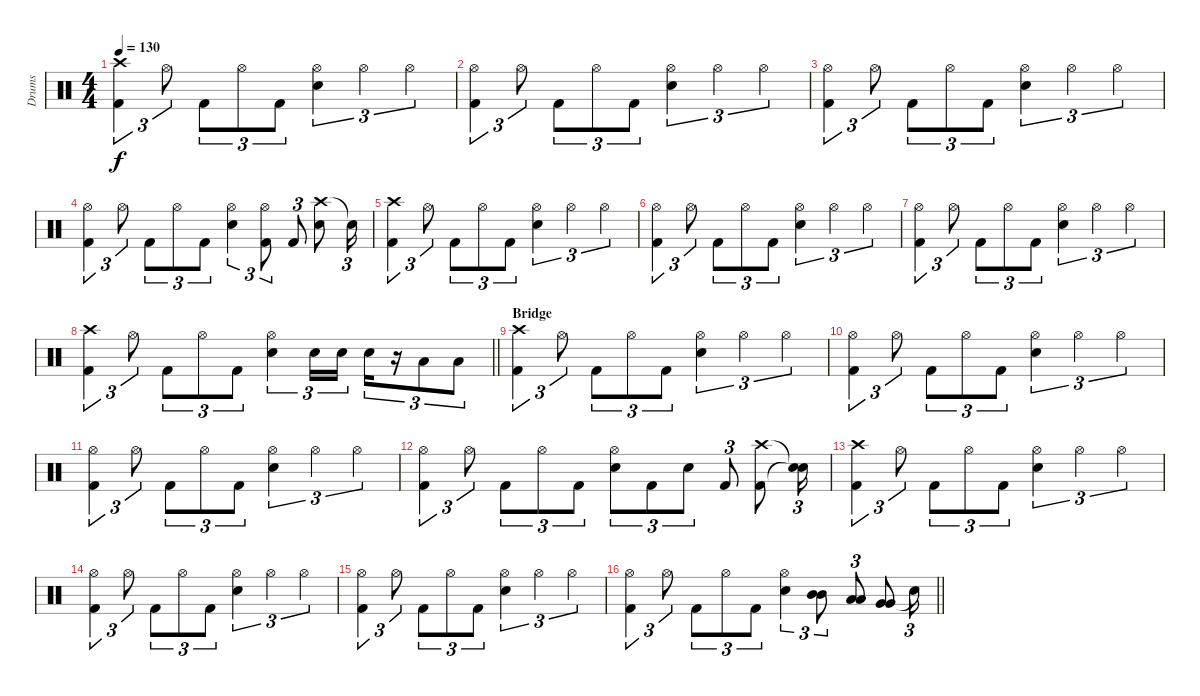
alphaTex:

\track ("Drums" "Drums") {instrument percussion}
\staff {score}
\articulation defaults
\ts (4 4)
\tempo 130
\clef neutral
\ks c
("Crash high (hit)" "Kick (hit) 2").4{tu (3 2) dy f} "Hi-Hat (open)".8{tu (3 2)} "Kick (hit) 2".8{tu (3 2)} "Hi-Hat (open)".8{tu (3 2)} "Kick (hit) 2".8{tu (3 2)} ("Hi-Hat (open)" "Electric Snare (hit)").4{tu (3 2)} "Hi-Hat (open)".4{tu (3 2)} "Hi-Hat (open)".4{tu (3 2)} |
("Hi-Hat (open)" "Kick (hit) 2").4{tu (3 2)} "Hi-Hat (open)".8{tu (3 2)} "Kick (hit) 2".8{tu (3 2)} "Hi-Hat (open)".8{tu (3 2)} "Kick (hit) 2".8{tu (3 2)} ("Hi-Hat (open)" "Electric Snare (hit)").4{tu (3 2)} "Hi-Hat (open)".4{tu (3 2)} "Hi-Hat (open)".4{tu (3 2)} |
("Hi-Hat (open)" "Kick (hit) 2").4{tu (3 2)} "Hi-Hat (open)".8{tu (3 2)} "Kick (hit) 2".8{tu (3 2)} "Hi-Hat (open)".8{tu (3 2)} "Kick (hit) 2".8{tu (3 2)} ("Hi-Hat (open)" "Electric Snare (hit)").4{tu (3 2)} "Hi-Hat (open)".4{tu (3 2)} "Hi-Hat (open)".4{tu (3 2)} |
("Hi-Hat (open)" "Kick (hit) 2").4{tu (3 2)} "Hi-Hat (open)".8{tu (3 2)} "Kick (hit) 2".8{tu (3 2)} "Hi-Hat (open)".8{tu (3 2)} "Kick (hit) 2".8{tu (3 2)} ("Hi-Hat (open)" "Electric Snare (hit)").4{tu (3 2)} ("Hi-Hat (open)" "Kick (hit) 2").8{tu (3 2)} "Kick (hit) 2".8{tu (3 2)} ("Crash high (hit)" "Electric Snare (hit)").8 "Snare (hit)"{t}.16{tu (3 2)} |
("Crash high (hit)" "Kick (hit) 2").4{tu (3 2)} "Hi-Hat (open)".8{tu (3 2)} "Kick (hit) 2".8{tu (3 2)} "Hi-Hat (open)".8{tu (3 2)} "Kick (hit) 2".8{tu (3 2)} ("Hi-Hat (open)" "Electric Snare (hit)").4{tu (3 2)} "Hi-Hat (open)".4{tu (3 2)} "Hi-Hat (open)".4{tu (3 2)} |
("Hi-Hat (open)" "Kick (hit) 2").4{tu (3 2)} "Hi-Hat (open)".8{tu (3 2)} "Kick (hit) 2".8{tu (3 2)} "Hi-Hat (open)".8{tu (3 2)} "Kick (hit) 2".8{tu (3 2)} ("Hi-Hat (open)" "Electric Snare (hit)").4{tu (3 2)} "Hi-Hat (open)".4{tu (3 2)} "Hi-Hat (open)".4{tu (3 2)} |
("Hi-Hat (open)" "Kick (hit) 2").4{tu (3 2)} "Hi-Hat (open)".8{tu (3 2)} "Kick (hit) 2".8{tu (3 2)} "Hi-Hat (open)".8{tu (3 2)} "Kick (hit) 2".8{tu (3 2)} ("Hi-Hat (open)" "Electric Snare (hit)").4{tu (3 2)} "Hi-Hat (open)".4{tu (3 2)} "Hi-Hat (open)".4{tu (3 2)} |
\barLineRight lightlight
("Crash high (hit)" "Kick (hit) 2").4{tu (3 2)} "Hi-Hat (open)".8{tu (3 2)} "Kick (hit) 2".8{tu (3 2)} "Hi-Hat (open)".8{tu (3 2)} "Kick (hit) 2".8{tu (3 2)} ("Hi-Hat (open)" "Electric Snare (hit)").4{tu (3 2)} "Electric Snare (hit)".16{tu (3 2)} "Electric Snare (hit)".16{tu (3 2)} "Electric Snare (hit)".16{tu (3 2)} r.16{tu (3 2)} "Low Tom (hit)".8{tu (3 2)} "Low Tom (hit)".8{tu (3 2)} |
\section ("" "Bridge")
("Crash high (hit)" "Kick (hit) 2").4{tu (3 2)} "Hi-Hat (open)".8{tu (3 2)} "Kick (hit) 2".8{tu (3 2)} "Hi-Hat (open)".8{tu (3 2)} "Kick (hit) 2".8{tu (3 2)} ("Hi-Hat (open)" "Electric Snare (hit)").4{tu (3 2)} "Hi-Hat (open)".4{tu (3 2)} "Hi-Hat (open)".4{tu (3 2)} |
("Hi-Hat (open)" "Kick (hit) 2").4{tu (3 2)} "Hi-Hat (open)".8{tu (3 2)} "Kick (hit) 2".8{tu (3 2)} "Hi-Hat (open)".8{tu (3 2)} "Kick (hit) 2".8{tu (3 2)} ("Hi-Hat (open)" "Electric Snare (hit)").4{tu (3 2)} "Hi-Hat (open)".4{tu (3 2)} "Hi-Hat (open)".4{tu (3 2)} |
("Hi-Hat (open)" "Kick (hit) 2").4{tu (3 2)} "Hi-Hat (open)".8{tu (3 2)} "Kick (hit) 2".8{tu (3 2)} "Hi-Hat (open)".8{tu (3 2)} "Kick (hit) 2".8{tu (3 2)} ("Hi-Hat (open)" "Electric Snare (hit)").4{tu (3 2)} "Hi-Hat (open)".4{tu (3 2)} "Hi-Hat (open)".4{tu (3 2)} |
("Hi-Hat (open)" "Kick (hit) 2").4{tu (3 2)} "Hi-Hat (open)".8{tu (3 2)} "Kick (hit) 2".8{tu (3 2)} "Hi-Hat (open)".8{tu (3 2)} "Kick (hit) 2".8{tu (3 2)} ("Hi-Hat (open)" "Electric Snare (hit)").8{tu (3 2)} "Kick (hit) 2".8{tu (3 2)} "Electric Snare (hit)".8{tu (3 2)} "Kick (hit) 2".8{tu (3 2)} ("Crash high (hit)" "Kick (hit) 2").8 ("Snare (hit)"{t} "Snare (hit)"{t}).16{tu (3 2)} |
("Crash high (hit)" "Kick (hit) 2").4{tu (3 2)} "Hi-Hat (open)".8{tu (3 2)} "Kick (hit) 2".8{tu (3 2)} "Hi-Hat (open)".8{tu (3 2)} "Kick (hit) 2".8{tu (3 2)} ("Hi-Hat (open)" "Electric Snare (hit)").4{tu (3 2)} "Hi-Hat (open)".4{tu (3 2)} "Hi-Hat (open)".4{tu (3 2)} |
("Hi-Hat (open)" "Kick (hit) 2").4{tu (3 2)} "Hi-Hat (open)".8{tu (3 2)} "Kick (hit) 2".8{tu (3 2)} "Hi-Hat (open)".8{tu (3 2)} "Kick (hit) 2".8{tu (3 2)} ("Hi-Hat (open)" "Electric Snare (hit)").4{tu (3 2)} "Hi-Hat (open)".4{tu (3 2)} "Hi-Hat (open)".4{tu (3 2)} |
("Hi-Hat (open)" "Kick (hit) 2").4{tu (3 2)} "Hi-Hat (open)".8{tu (3 2)} "Kick (hit) 2".8{tu (3 2)} "Hi-Hat (open)".8{tu (3 2)} "Kick (hit) 2".8{tu (3 2)} ("Hi-Hat (open)" "Electric Snare (hit)").4{tu (3 2)} "Hi-Hat (open)".4{tu (3 2)} "Hi-Hat (open)".4{tu (3 2)} |
\barLineRight lightlight
("Hi-Hat (open)" "Kick (hit) 2").4{tu (3 2)} "Hi-Hat (open)".8{tu (3 2)} "Kick (hit) 2".8{tu (3 2)} "Hi-Hat (open)".8{tu (3 2)} "Kick (hit) 2".8{tu (3 2)} ("Hi-Hat (open)" "Electric Snare (hit)").4{tu (3 2)} ("Mid Tom (hit)" "Mid Tom (hit)").8{tu (3 2)} ("Low Tom (hit)" "Low Tom (hit)").8{tu (3 2)} ("Very Low Tom (hit)" "Very Low Tom (hit)").8 "Snare (hit)"{t}.16{tu (3 2)}
